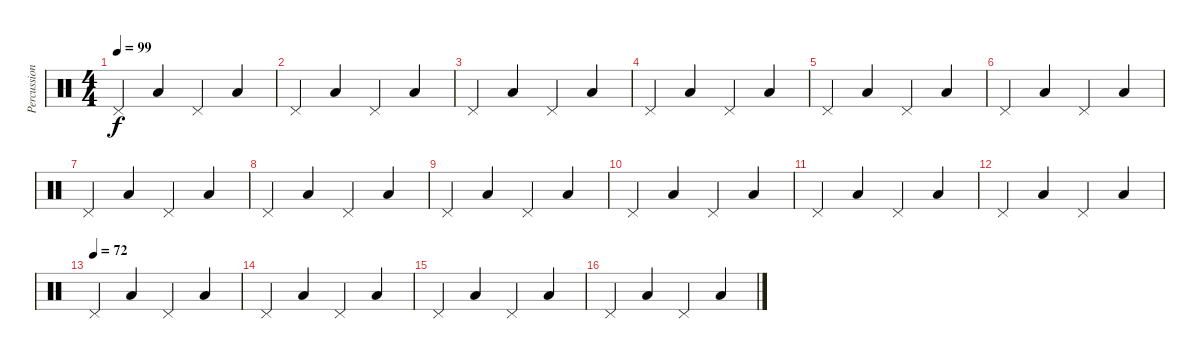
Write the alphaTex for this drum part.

\track ("Percussions" "Percussion") {instrument percussion}
\staff {score}
\articulation defaults
\ts (4 4)
\tempo 99
\clef neutral
\ks c "Pedal Hi-Hat (hit)".4{dy f} "Low Tom (hit)".4 "Pedal Hi-Hat (hit)".4 "Low Tom (hit)".4
|
"Pedal Hi-Hat (hit)".4 "Low Tom (hit)".4 "Pedal Hi-Hat (hit)".4 "Low Tom (hit)".4 |
"Pedal Hi-Hat (hit)".4 "Low Tom (hit)".4 "Pedal Hi-Hat (hit)".4 "Low Tom (hit)".4 |
"Pedal Hi-Hat (hit)".4 "Low Tom (hit)".4 "Pedal Hi-Hat (hit)".4 "Low Tom (hit)".4 |
"Pedal Hi-Hat (hit)".4 "Low Tom (hit)".4 "Pedal Hi-Hat (hit)".4 "Low Tom (hit)".4 |
"Pedal Hi-Hat (hit)".4 "Low Tom (hit)".4 "Pedal Hi-Hat (hit)".4 "Low Tom (hit)".4 |
"Pedal Hi-Hat (hit)".4 "Low Tom (hit)".4 "Pedal Hi-Hat (hit)".4 "Low Tom (hit)".4 |
"Pedal Hi-Hat (hit)".4 "Low Tom (hit)".4 "Pedal Hi-Hat (hit)".4 "Low Tom (hit)".4 |
"Pedal Hi-Hat (hit)".4 "Low Tom (hit)".4 "Pedal Hi-Hat (hit)".4 "Low Tom (hit)".4 |
"Pedal Hi-Hat (hit)".4 "Low Tom (hit)".4 "Pedal Hi-Hat (hit)".4 "Low Tom (hit)".4 |
"Pedal Hi-Hat (hit)".4 "Low Tom (hit)".4 "Pedal Hi-Hat (hit)".4 "Low Tom (hit)".4 |
"Pedal Hi-Hat (hit)".4 "Low Tom (hit)".4 "Pedal Hi-Hat (hit)".4 "Low Tom (hit)".4 |
\tempo (72)
"Pedal Hi-Hat (hit)".4 "Low Tom (hit)".4 "Pedal Hi-Hat (hit)".4 "Low Tom (hit)".4 |
"Pedal Hi-Hat (hit)".4 "Low Tom (hit)".4 "Pedal Hi-Hat (hit)".4 "Low Tom (hit)".4 |
"Pedal Hi-Hat (hit)".4 "Low Tom (hit)".4 "Pedal Hi-Hat (hit)".4 "Low Tom (hit)".4 |
"Pedal Hi-Hat (hit)".4 "Low Tom (hit)".4 "Pedal Hi-Hat (hit)".4 "Low Tom (hit)".4
